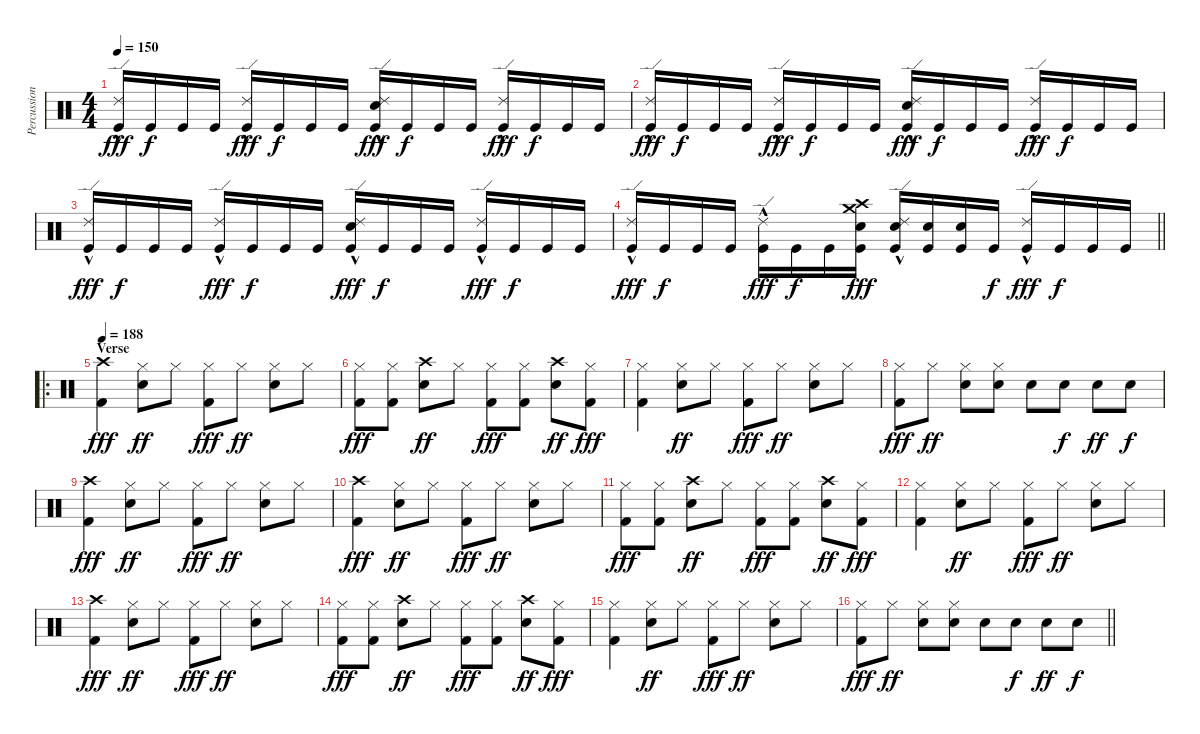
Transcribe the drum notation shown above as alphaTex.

\track ("Percussion" "Percussion") {instrument percussion}
\staff {score}
\articulation defaults
\ts (4 4)
\tempo 150
\clef neutral
\ks c
("Ride (edge) 2"{hac} "Kick (hit)").16{dy fff} "Kick (hit)".16{dy f} "Kick (hit)".16 "Kick (hit)".16 ("Ride (edge) 2"{hac} "Kick (hit)").16{dy fff} "Kick (hit)".16{dy f} "Kick (hit)".16 "Kick (hit)".16 ("Ride (edge) 2"{hac} "Snare (hit) 2" "Kick (hit)").16{dy fff} "Kick (hit)".16{dy f} "Kick (hit)".16 "Kick (hit)".16 ("Ride (edge) 2"{hac} "Kick (hit)").16{dy fff} "Kick (hit)".16{dy f} "Kick (hit)".16 "Kick (hit)".16 |
("Ride (edge) 2"{hac} "Kick (hit)").16{dy fff} "Kick (hit)".16{dy f} "Kick (hit)".16 "Kick (hit)".16 ("Ride (edge) 2"{hac} "Kick (hit)").16{dy fff} "Kick (hit)".16{dy f} "Kick (hit)".16 "Kick (hit)".16 ("Ride (edge) 2"{hac} "Snare (hit) 2" "Kick (hit)").16{dy fff} "Kick (hit)".16{dy f} "Kick (hit)".16 "Kick (hit)".16 ("Ride (edge) 2"{hac} "Kick (hit)").16{dy fff} "Kick (hit)".16{dy f} "Kick (hit)".16 "Kick (hit)".16 |
("Ride (edge) 2"{hac} "Kick (hit)").16{dy fff} "Kick (hit)".16{dy f} "Kick (hit)".16 "Kick (hit)".16 ("Ride (edge) 2"{hac} "Kick (hit)").16{dy fff} "Kick (hit)".16{dy f} "Kick (hit)".16 "Kick (hit)".16 ("Ride (edge) 2"{hac} "Snare (hit) 2" "Kick (hit)").16{dy fff} "Kick (hit)".16{dy f} "Kick (hit)".16 "Kick (hit)".16 ("Ride (edge) 2"{hac} "Kick (hit)").16{dy fff} "Kick (hit)".16{dy f} "Kick (hit)".16 "Kick (hit)".16 |
\barLineRight lightlight
("Ride (edge) 2"{hac} "Kick (hit)").16{dy fff} "Kick (hit)".16{dy f} "Kick (hit)".16 "Kick (hit)".16 ("Ride (edge) 2"{hac} "Kick (hit)").16{dy fff} "Kick (hit)".16{dy f} "Kick (hit)".16 ("Crash medium (hit)" "Crash high (hit)" "Snare (hit) 2" "Kick (hit)").16{dy fff} ("Ride (edge) 2"{hac} "Snare (hit) 2" "Kick (hit)").16 ("Snare (hit) 2" "Kick (hit)").16 ("Snare (hit) 2" "Kick (hit)").16 "Kick (hit)".16{dy f} ("Ride (edge) 2"{hac} "Kick (hit)").16{dy fff} "Kick (hit)".16{dy f} "Kick (hit)".16 "Kick (hit)".16 |
\ro
\section ("" "Verse")
\tempo 188
("Crash high (hit)" "Kick (hit) 2").4{dy fff} ("Hi-Hat (closed)" "Snare (hit) 2").8{dy ff} "Hi-Hat (closed)".8 ("Hi-Hat (closed)" "Kick (hit) 2").8{dy fff} "Hi-Hat (closed)".8{dy ff} ("Hi-Hat (closed)" "Snare (hit) 2").8 "Hi-Hat (closed)".8 |
("Hi-Hat (closed)" "Kick (hit) 2").8{dy fff} ("Hi-Hat (closed)" "Kick (hit) 2").8 ("Crash high (hit)" "Snare (hit) 2").8{dy ff} "Hi-Hat (closed)".8 ("Hi-Hat (closed)" "Kick (hit) 2").8{dy fff} ("Hi-Hat (closed)" "Kick (hit) 2").8 ("Crash high (hit)" "Snare (hit) 2").8{dy ff} ("Hi-Hat (closed)" "Kick (hit) 2").8{dy fff} |
("Hi-Hat (closed)" "Kick (hit) 2").4 ("Hi-Hat (closed)" "Snare (hit) 2").8{dy ff} "Hi-Hat (closed)".8 ("Hi-Hat (closed)" "Kick (hit) 2").8{dy fff} "Hi-Hat (closed)".8{dy ff} ("Hi-Hat (closed)" "Snare (hit) 2").8 "Hi-Hat (closed)".8 |
("Hi-Hat (closed)" "Kick (hit) 2").8{dy fff} "Hi-Hat (closed)".8{dy ff} ("Hi-Hat (closed)" "Snare (hit) 2").8 ("Hi-Hat (closed)" "Snare (hit) 2").8 "Snare (hit) 2".8 "Snare (hit) 2".8{dy f} "Snare (hit) 2".8{dy ff} "Snare (hit) 2".8{dy f} |
("Crash high (hit)" "Kick (hit) 2").4{dy fff} ("Hi-Hat (closed)" "Snare (hit) 2").8{dy ff} "Hi-Hat (closed)".8 ("Hi-Hat (closed)" "Kick (hit) 2").8{dy fff} "Hi-Hat (closed)".8{dy ff} ("Hi-Hat (closed)" "Snare (hit) 2").8 "Hi-Hat (closed)".8 |
("Crash high (hit)" "Kick (hit) 2").4{dy fff} ("Hi-Hat (closed)" "Snare (hit) 2").8{dy ff} "Hi-Hat (closed)".8 ("Hi-Hat (closed)" "Kick (hit) 2").8{dy fff} "Hi-Hat (closed)".8{dy ff} ("Hi-Hat (closed)" "Snare (hit) 2").8 "Hi-Hat (closed)".8 |
("Hi-Hat (closed)" "Kick (hit) 2").8{dy fff} ("Hi-Hat (closed)" "Kick (hit) 2").8 ("Crash high (hit)" "Snare (hit) 2").8{dy ff} "Hi-Hat (closed)".8 ("Hi-Hat (closed)" "Kick (hit) 2").8{dy fff} ("Hi-Hat (closed)" "Kick (hit) 2").8 ("Crash high (hit)" "Snare (hit) 2").8{dy ff} ("Hi-Hat (closed)" "Kick (hit) 2").8{dy fff} |
("Hi-Hat (closed)" "Kick (hit) 2").4 ("Hi-Hat (closed)" "Snare (hit) 2").8{dy ff} "Hi-Hat (closed)".8 ("Hi-Hat (closed)" "Kick (hit) 2").8{dy fff} "Hi-Hat (closed)".8{dy ff} ("Hi-Hat (closed)" "Snare (hit) 2").8 "Hi-Hat (closed)".8 |
("Crash high (hit)" "Kick (hit) 2").4{dy fff} ("Hi-Hat (closed)" "Snare (hit) 2").8{dy ff} "Hi-Hat (closed)".8 ("Hi-Hat (closed)" "Kick (hit) 2").8{dy fff} "Hi-Hat (closed)".8{dy ff} ("Hi-Hat (closed)" "Snare (hit) 2").8 "Hi-Hat (closed)".8 |
("Hi-Hat (closed)" "Kick (hit) 2").8{dy fff} ("Hi-Hat (closed)" "Kick (hit) 2").8 ("Crash high (hit)" "Snare (hit) 2").8{dy ff} "Hi-Hat (closed)".8 ("Hi-Hat (closed)" "Kick (hit) 2").8{dy fff} ("Hi-Hat (closed)" "Kick (hit) 2").8 ("Crash high (hit)" "Snare (hit) 2").8{dy ff} ("Hi-Hat (closed)" "Kick (hit) 2").8{dy fff} |
("Hi-Hat (closed)" "Kick (hit) 2").4 ("Hi-Hat (closed)" "Snare (hit) 2").8{dy ff} "Hi-Hat (closed)".8 ("Hi-Hat (closed)" "Kick (hit) 2").8{dy fff} "Hi-Hat (closed)".8{dy ff} ("Hi-Hat (closed)" "Snare (hit) 2").8 "Hi-Hat (closed)".8 |
\barLineRight lightlight
("Hi-Hat (closed)" "Kick (hit) 2").8{dy fff} "Hi-Hat (closed)".8{dy ff} ("Hi-Hat (closed)" "Snare (hit) 2").8 ("Hi-Hat (closed)" "Snare (hit) 2").8 "Snare (hit) 2".8 "Snare (hit) 2".8{dy f} "Snare (hit) 2".8{dy ff} "Snare (hit) 2".8{dy f}
